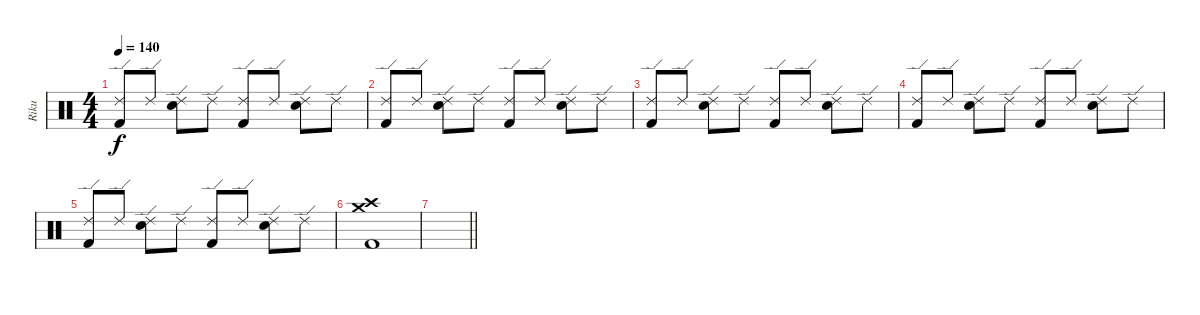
\track ("Riku" "Riku") {instrument percussion}
\staff {score}
\articulation defaults
\ts (4 4)
\tempo 140
\clef neutral
\ks c
("Kick (hit) 2" "Ride (edge) 2").8{dy f} "Ride (edge) 2".8 ("Electric Snare (hit)" "Ride (edge) 2").8 "Ride (edge) 2".8 ("Kick (hit) 2" "Ride (edge) 2").8 "Ride (edge) 2".8 ("Electric Snare (hit)" "Ride (edge) 2").8 "Ride (edge) 2".8 |
("Kick (hit) 2" "Ride (edge) 2").8 "Ride (edge) 2".8 ("Electric Snare (hit)" "Ride (edge) 2").8 "Ride (edge) 2".8 ("Kick (hit) 2" "Ride (edge) 2").8 "Ride (edge) 2".8 ("Electric Snare (hit)" "Ride (edge) 2").8 "Ride (edge) 2".8 |
("Kick (hit) 2" "Ride (edge) 2").8 "Ride (edge) 2".8 ("Electric Snare (hit)" "Ride (edge) 2").8 "Ride (edge) 2".8 ("Kick (hit) 2" "Ride (edge) 2").8 "Ride (edge) 2".8 ("Electric Snare (hit)" "Ride (edge) 2").8 "Ride (edge) 2".8 |
("Kick (hit) 2" "Ride (edge) 2").8 "Ride (edge) 2".8 ("Electric Snare (hit)" "Ride (edge) 2").8 "Ride (edge) 2".8 ("Kick (hit) 2" "Ride (edge) 2").8 "Ride (edge) 2".8 ("Electric Snare (hit)" "Ride (edge) 2").8 "Ride (edge) 2".8 |
("Kick (hit) 2" "Ride (edge) 2").8 "Ride (edge) 2".8 ("Electric Snare (hit)" "Ride (edge) 2").8 "Ride (edge) 2".8 ("Kick (hit) 2" "Ride (edge) 2").8 "Ride (edge) 2".8 ("Electric Snare (hit)" "Ride (edge) 2").8 "Ride (edge) 2".8 |
("Crash high (hit)" "Crash medium (hit)" "Kick (hit) 2").1 |
\barLineRight lightlight
